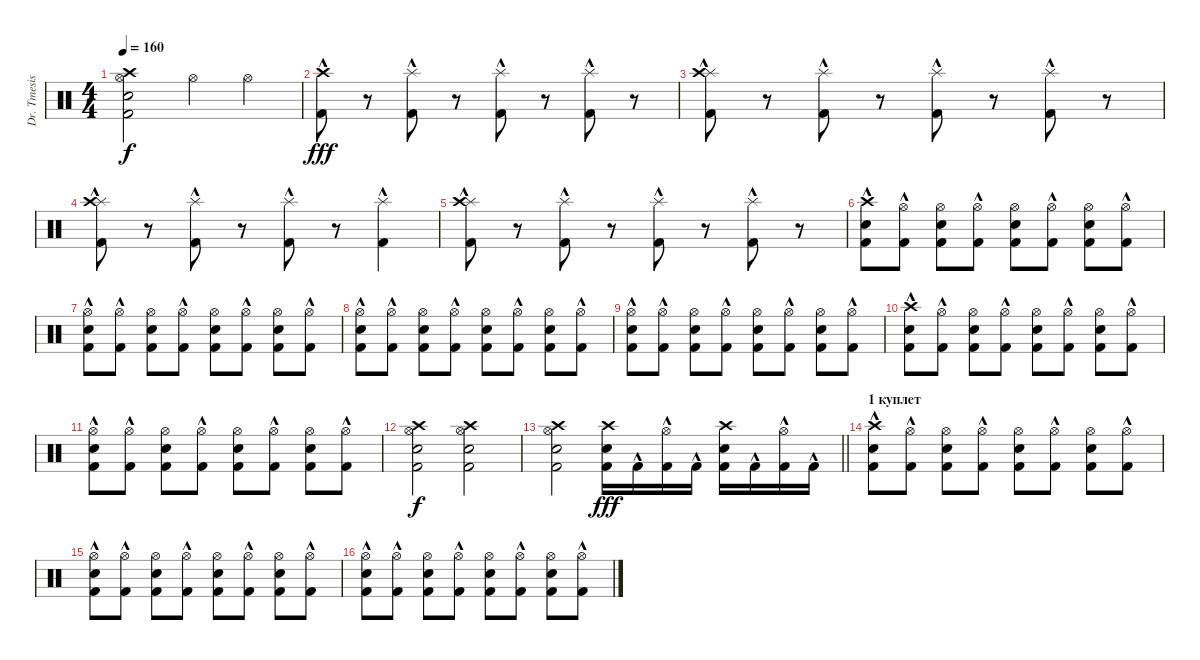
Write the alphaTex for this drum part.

\track ("Dr. Tmesis" "Dr. Tmesis") {instrument percussion}
\staff {score}
\articulation defaults
\ts (4 4)
\tempo 160
\clef neutral
\ks c
("Kick (hit) 2" "Snare (hit) 2" "Crash high (hit)" "Hi-Hat (open)").2{dy f} "Hi-Hat (open)".4 "Hi-Hat (open)".4 |
("Kick (hit) 2"{hac} "Crash high (hit)").8{dy fff} r.8 ("Kick (hit) 2"{hac} "Splash (hit)").8 r.8 ("Kick (hit) 2"{hac} "Splash (hit)").8 r.8 ("Kick (hit) 2"{hac} "Splash (hit)").8 r.8 |
("Kick (hit) 2"{hac} "Splash (hit)" "Crash high (hit)").8 r.8 ("Kick (hit) 2"{hac} "Splash (hit)").8 r.8 ("Kick (hit) 2"{hac} "Splash (hit)").8 r.8 ("Kick (hit) 2"{hac} "Splash (hit)").8 r.8 |
("Kick (hit) 2"{hac} "Splash (hit)" "Crash high (hit)").8 r.8 ("Kick (hit) 2"{hac} "Splash (hit)").8 r.8 ("Kick (hit) 2"{hac} "Splash (hit)").8 r.8 ("Kick (hit) 2"{hac} "Splash (hit)").4 |
("Kick (hit) 2"{hac} "Splash (hit)" "Crash high (hit)").8 r.8 ("Kick (hit) 2"{hac} "Splash (hit)").8 r.8 ("Kick (hit) 2"{hac} "Splash (hit)").8 r.8 ("Kick (hit) 2"{hac} "Splash (hit)").8 r.8 |
("Kick (hit) 2"{hac} "Snare (hit) 2" "Crash high (hit)").8 ("Kick (hit) 2"{hac} "Hi-Hat (open)").8 ("Snare (hit) 2" "Hi-Hat (open)" "Kick (hit) 2").8 ("Kick (hit) 2"{hac} "Hi-Hat (open)").8 ("Snare (hit) 2" "Hi-Hat (open)" "Kick (hit) 2").8 ("Kick (hit) 2"{hac} "Hi-Hat (open)").8 ("Snare (hit) 2" "Hi-Hat (open)" "Kick (hit) 2").8 ("Kick (hit) 2"{hac} "Hi-Hat (open)").8 |
("Kick (hit) 2"{hac} "Snare (hit) 2" "Hi-Hat (open)").8 ("Kick (hit) 2"{hac} "Hi-Hat (open)").8 ("Snare (hit) 2" "Hi-Hat (open)" "Kick (hit) 2").8 ("Kick (hit) 2"{hac} "Hi-Hat (open)").8 ("Snare (hit) 2" "Hi-Hat (open)" "Kick (hit) 2").8 ("Kick (hit) 2"{hac} "Hi-Hat (open)").8 ("Snare (hit) 2" "Hi-Hat (open)" "Kick (hit) 2").8 ("Kick (hit) 2"{hac} "Hi-Hat (open)").8 |
("Kick (hit) 2"{hac} "Snare (hit) 2" "Hi-Hat (open)").8 ("Kick (hit) 2"{hac} "Hi-Hat (open)").8 ("Snare (hit) 2" "Hi-Hat (open)" "Kick (hit) 2").8 ("Kick (hit) 2"{hac} "Hi-Hat (open)").8 ("Snare (hit) 2" "Hi-Hat (open)" "Kick (hit) 2").8 ("Kick (hit) 2"{hac} "Hi-Hat (open)").8 ("Snare (hit) 2" "Hi-Hat (open)" "Kick (hit) 2").8 ("Kick (hit) 2"{hac} "Hi-Hat (open)").8 |
("Kick (hit) 2"{hac} "Snare (hit) 2" "Hi-Hat (open)").8 ("Kick (hit) 2"{hac} "Hi-Hat (open)").8 ("Snare (hit) 2" "Hi-Hat (open)" "Kick (hit) 2").8 ("Kick (hit) 2"{hac} "Hi-Hat (open)").8 ("Snare (hit) 2" "Hi-Hat (open)" "Kick (hit) 2").8 ("Kick (hit) 2"{hac} "Hi-Hat (open)").8 ("Snare (hit) 2" "Hi-Hat (open)" "Kick (hit) 2").8 ("Kick (hit) 2"{hac} "Hi-Hat (open)").8 |
("Kick (hit) 2"{hac} "Snare (hit) 2" "Crash high (hit)").8 ("Kick (hit) 2"{hac} "Hi-Hat (open)").8 ("Snare (hit) 2" "Hi-Hat (open)" "Kick (hit) 2").8 ("Kick (hit) 2"{hac} "Hi-Hat (open)").8 ("Snare (hit) 2" "Hi-Hat (open)" "Kick (hit) 2").8 ("Kick (hit) 2"{hac} "Hi-Hat (open)").8 ("Snare (hit) 2" "Hi-Hat (open)" "Kick (hit) 2").8 ("Kick (hit) 2"{hac} "Hi-Hat (open)").8 |
("Kick (hit) 2"{hac} "Snare (hit) 2" "Hi-Hat (open)").8 ("Kick (hit) 2"{hac} "Hi-Hat (open)").8 ("Snare (hit) 2" "Hi-Hat (open)" "Kick (hit) 2").8 ("Kick (hit) 2"{hac} "Hi-Hat (open)").8 ("Snare (hit) 2" "Hi-Hat (open)" "Kick (hit) 2").8 ("Kick (hit) 2"{hac} "Hi-Hat (open)").8 ("Snare (hit) 2" "Hi-Hat (open)" "Kick (hit) 2").8 ("Kick (hit) 2"{hac} "Hi-Hat (open)").8 |
("Kick (hit) 2" "Snare (hit) 2" "Crash high (hit)" "Hi-Hat (open)").2{dy f} ("Kick (hit) 2" "Snare (hit) 2" "Crash high (hit)" "Hi-Hat (open)").2 |
\barLineRight lightlight
("Kick (hit) 2" "Snare (hit) 2" "Crash high (hit)" "Hi-Hat (open)").2 ("Snare (hit) 2" "Crash high (hit)" "Kick (hit) 2").16{dy fff} "Kick (hit) 2"{hac}.16 ("Kick (hit) 2"{hac} "Hi-Hat (open)").16 "Kick (hit) 2"{hac}.16 ("Snare (hit) 2" "Crash high (hit)" "Kick (hit) 2").16 "Kick (hit) 2"{hac}.16 ("Kick (hit) 2"{hac} "Hi-Hat (open)").16 "Kick (hit) 2"{hac}.16 |
\section ("" "1 куплет")
("Kick (hit) 2"{hac} "Snare (hit) 2" "Crash high (hit)").8 ("Kick (hit) 2"{hac} "Hi-Hat (open)").8 ("Snare (hit) 2" "Hi-Hat (open)" "Kick (hit) 2").8 ("Kick (hit) 2"{hac} "Hi-Hat (open)").8 ("Snare (hit) 2" "Hi-Hat (open)" "Kick (hit) 2").8 ("Kick (hit) 2"{hac} "Hi-Hat (open)").8 ("Snare (hit) 2" "Hi-Hat (open)" "Kick (hit) 2").8 ("Kick (hit) 2"{hac} "Hi-Hat (open)").8 |
("Kick (hit) 2"{hac} "Snare (hit) 2" "Hi-Hat (open)").8 ("Kick (hit) 2"{hac} "Hi-Hat (open)").8 ("Snare (hit) 2" "Hi-Hat (open)" "Kick (hit) 2").8 ("Kick (hit) 2"{hac} "Hi-Hat (open)").8 ("Snare (hit) 2" "Hi-Hat (open)" "Kick (hit) 2").8 ("Kick (hit) 2"{hac} "Hi-Hat (open)").8 ("Snare (hit) 2" "Hi-Hat (open)" "Kick (hit) 2").8 ("Kick (hit) 2"{hac} "Hi-Hat (open)").8 |
("Kick (hit) 2"{hac} "Snare (hit) 2" "Hi-Hat (open)").8 ("Kick (hit) 2"{hac} "Hi-Hat (open)").8 ("Snare (hit) 2" "Hi-Hat (open)" "Kick (hit) 2").8 ("Kick (hit) 2"{hac} "Hi-Hat (open)").8 ("Snare (hit) 2" "Hi-Hat (open)" "Kick (hit) 2").8 ("Kick (hit) 2"{hac} "Hi-Hat (open)").8 ("Snare (hit) 2" "Hi-Hat (open)" "Kick (hit) 2").8 ("Kick (hit) 2"{hac} "Hi-Hat (open)").8
